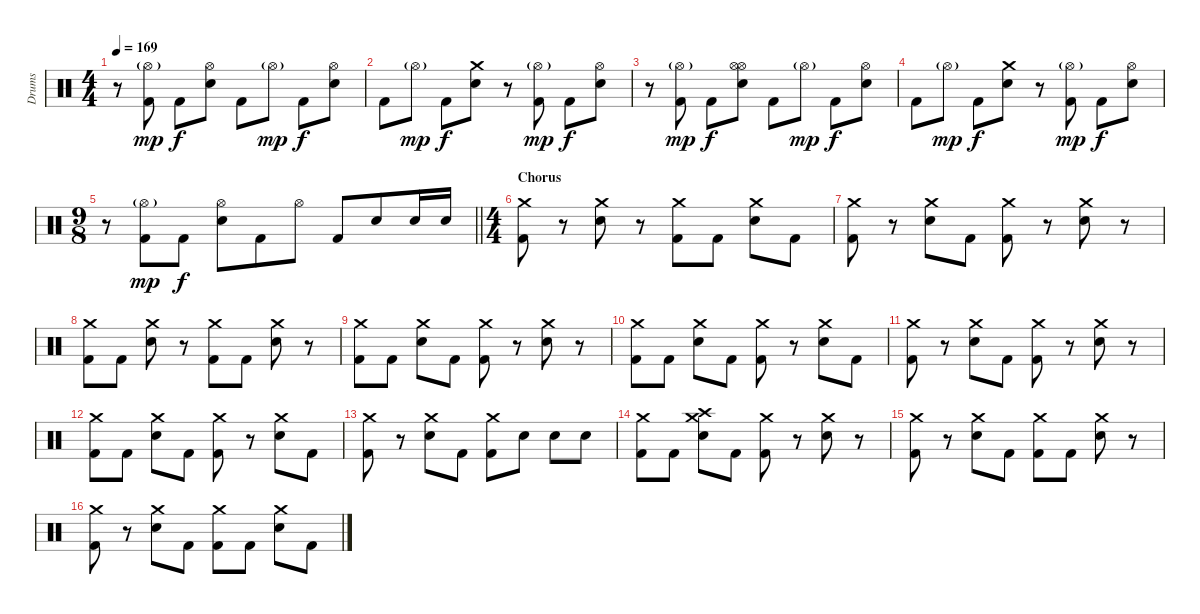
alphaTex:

\track ("Drums" "Drums") {instrument percussion}
\staff {score}
\articulation defaults
\ts (4 4)
\tempo 169
\clef neutral
\ks c
r.8{dy f} ("Hi-Hat (open)"{g} "Kick (hit) 2").8{dy mp} "Kick (hit) 2".8{dy f} ("Hi-Hat (open)" "Electric Snare (hit)").8 "Kick (hit) 2".8 "Hi-Hat (open)"{g}.8{dy mp} "Kick (hit) 2".8{dy f} ("Hi-Hat (open)" "Electric Snare (hit)").8 |
"Kick (hit) 2".8 "Hi-Hat (open)"{g}.8{dy mp} "Kick (hit) 2".8{dy f} ("Crash medium (hit)" "Electric Snare (hit)").8 r.8 ("Hi-Hat (open)"{g} "Kick (hit) 2").8{dy mp} "Kick (hit) 2".8{dy f} ("Hi-Hat (open)" "Electric Snare (hit)").8 |
r.8 ("Hi-Hat (open)"{g} "Kick (hit) 2").8{dy mp} "Kick (hit) 2".8{dy f} ("Hi-Hat (open)" "Hi-Hat (open)" "Electric Snare (hit)").8 "Kick (hit) 2".8 "Hi-Hat (open)"{g}.8{dy mp} "Kick (hit) 2".8{dy f} ("Hi-Hat (open)" "Electric Snare (hit)").8 |
"Kick (hit) 2".8 "Hi-Hat (open)"{g}.8{dy mp} "Kick (hit) 2".8{dy f} ("Crash medium (hit)" "Electric Snare (hit)").8 r.8 ("Hi-Hat (open)"{g} "Kick (hit) 2").8{dy mp} "Kick (hit) 2".8{dy f} ("Hi-Hat (open)" "Electric Snare (hit)").8 |
\ts (9 8)
\barLineRight lightlight
r.8 ("Hi-Hat (open)"{g} "Kick (hit) 2").8{dy mp} "Kick (hit) 2".8{dy f} ("Hi-Hat (open)" "Electric Snare (hit)").8 "Kick (hit) 2".8 "Hi-Hat (open)".8 "Kick (hit) 2".8 "Electric Snare (hit)".8 "Electric Snare (hit)".16 "Electric Snare (hit)".16 |
\ts (4 4)
\section ("" "Chorus")
("Crash medium (hit)" "Kick (hit) 2").8 r.8 ("Crash medium (hit)" "Electric Snare (hit)").8 r.8 ("Crash medium (hit)" "Kick (hit) 2").8 "Kick (hit) 2".8 ("Crash medium (hit)" "Electric Snare (hit)").8 "Kick (hit) 2".8 |
("Crash medium (hit)" "Kick (hit) 2").8 r.8 ("Crash medium (hit)" "Electric Snare (hit)").8 "Kick (hit) 2".8 ("Crash medium (hit)" "Kick (hit) 2").8 r.8 ("Crash medium (hit)" "Electric Snare (hit)").8 r.8 |
("Crash medium (hit)" "Kick (hit) 2").8 "Kick (hit) 2".8 ("Crash medium (hit)" "Electric Snare (hit)").8 r.8 ("Crash medium (hit)" "Kick (hit) 2").8 "Kick (hit) 2".8 ("Crash medium (hit)" "Electric Snare (hit)").8 r.8 |
("Crash medium (hit)" "Kick (hit) 2").8 "Kick (hit) 2".8 ("Crash medium (hit)" "Electric Snare (hit)").8 "Kick (hit) 2".8 ("Crash medium (hit)" "Kick (hit) 2").8 r.8 ("Crash medium (hit)" "Electric Snare (hit)").8 r.8 |
("Crash medium (hit)" "Kick (hit) 2").8 "Kick (hit) 2".8 ("Crash medium (hit)" "Electric Snare (hit)").8 "Kick (hit) 2".8 ("Crash medium (hit)" "Kick (hit) 2").8 r.8 ("Crash medium (hit)" "Electric Snare (hit)").8 "Kick (hit) 2".8 |
("Crash medium (hit)" "Kick (hit) 2").8 r.8 ("Crash medium (hit)" "Electric Snare (hit)").8 "Kick (hit) 2".8 ("Crash medium (hit)" "Kick (hit) 2").8 r.8 ("Crash medium (hit)" "Electric Snare (hit)").8 r.8 |
("Crash medium (hit)" "Kick (hit) 2").8 "Kick (hit) 2".8 ("Crash medium (hit)" "Electric Snare (hit)").8 "Kick (hit) 2".8 ("Crash medium (hit)" "Kick (hit) 2").8 r.8 ("Crash medium (hit)" "Electric Snare (hit)").8 "Kick (hit) 2".8 |
("Crash medium (hit)" "Kick (hit) 2").8 r.8 ("Crash medium (hit)" "Electric Snare (hit)").8 "Kick (hit) 2".8 ("Crash medium (hit)" "Kick (hit) 2").8 "Electric Snare (hit)".8 "Electric Snare (hit)".8 "Electric Snare (hit)".8 |
("Crash medium (hit)" "Kick (hit) 2").8 "Kick (hit) 2".8 ("Crash medium (hit)" "Crash high (hit)" "Electric Snare (hit)").8 "Kick (hit) 2".8 ("Crash medium (hit)" "Kick (hit) 2").8 r.8 ("Crash medium (hit)" "Electric Snare (hit)").8 r.8 |
("Crash medium (hit)" "Kick (hit) 2").8 r.8 ("Crash medium (hit)" "Electric Snare (hit)").8 "Kick (hit) 2".8 ("Crash medium (hit)" "Kick (hit) 2").8 "Kick (hit) 2".8 ("Crash medium (hit)" "Electric Snare (hit)").8 r.8 |
("Crash medium (hit)" "Kick (hit) 2").8 r.8 ("Crash medium (hit)" "Electric Snare (hit)").8 "Kick (hit) 2".8 ("Crash medium (hit)" "Kick (hit) 2").8 "Kick (hit) 2".8 ("Crash medium (hit)" "Electric Snare (hit)").8 "Kick (hit) 2".8
